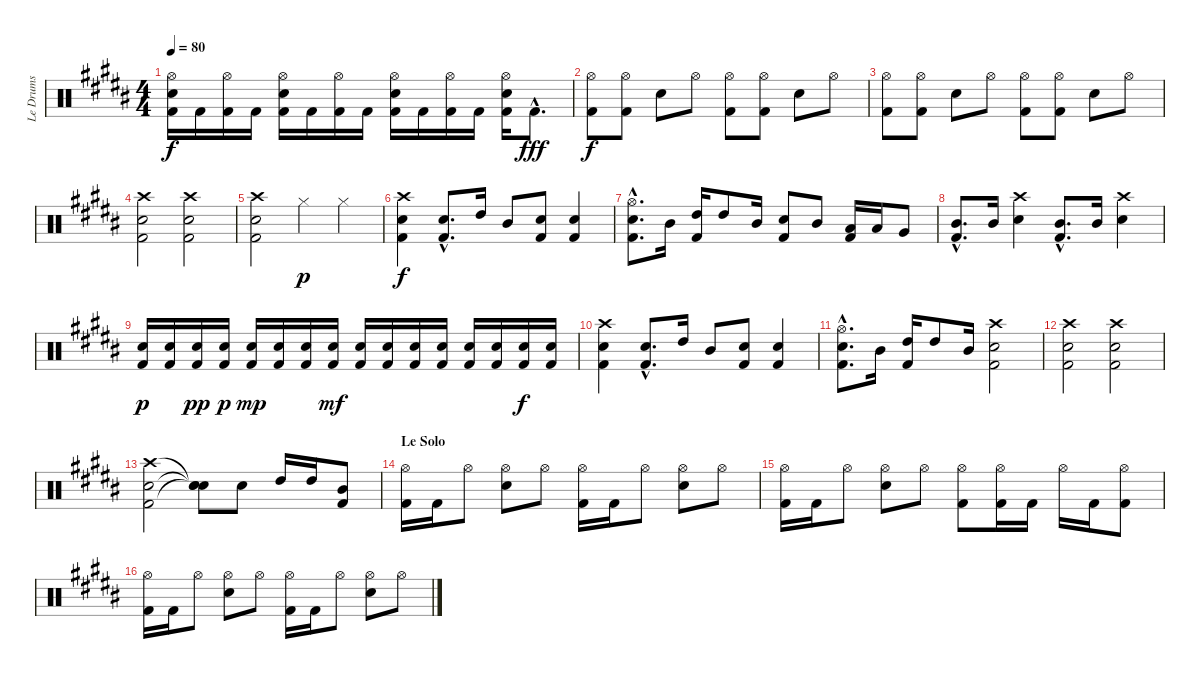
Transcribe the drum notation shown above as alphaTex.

\track ("Le Drums" "Le Drums") {instrument percussion}
\staff {score}
\articulation defaults
\ts (4 4)
\tempo 80
\clef neutral
\ks b
("Hi-Hat (open)" "Snare (hit) 2" "Kick (hit) 2").16{dy f} "Kick (hit) 2".16 ("Hi-Hat (open)" "Kick (hit) 2").16 "Kick (hit) 2".16 ("Hi-Hat (open)" "Snare (hit) 2" "Kick (hit) 2").16 "Kick (hit) 2".16 ("Hi-Hat (open)" "Kick (hit) 2").16 "Kick (hit) 2".16 ("Hi-Hat (open)" "Snare (hit) 2" "Kick (hit) 2").16 "Kick (hit) 2".16 ("Hi-Hat (open)" "Kick (hit) 2").16 "Kick (hit) 2".16 ("Hi-Hat (open)" "Snare (hit) 2" "Kick (hit) 2").16 "Kick (hit) 2"{hac}.8{d dy fff} |
("Hi-Hat (open)" "Kick (hit) 2").8{dy f} ("Hi-Hat (open)" "Kick (hit) 2").8 "Snare (hit) 2".8 "Hi-Hat (open)".8 ("Hi-Hat (open)" "Kick (hit) 2").8 ("Hi-Hat (open)" "Kick (hit) 2").8 "Snare (hit) 2".8 "Hi-Hat (open)".8 |
("Hi-Hat (open)" "Kick (hit) 2").8 ("Hi-Hat (open)" "Kick (hit) 2").8 "Snare (hit) 2".8 "Hi-Hat (open)".8 ("Hi-Hat (open)" "Kick (hit) 2").8 ("Hi-Hat (open)" "Kick (hit) 2").8 "Snare (hit) 2".8 "Hi-Hat (open)".8 |
("Crash high (hit)" "Snare (hit) 2" "Kick (hit) 2").2 ("Crash high (hit)" "Snare (hit) 2" "Kick (hit) 2").2 |
("Crash high (hit)" "Snare (hit) 2" "Kick (hit) 2").2 "Hi-Hat (closed)".4{dy p} "Hi-Hat (closed)".4 |
("Crash high (hit)" "Snare (hit) 2" "Kick (hit) 2").4{dy f} ("Snare (hit) 2"{hac} "Kick (hit) 2"{hac}).8{d} "High Tom (hit)".16 "Mid Tom (hit)".8 ("Snare (hit) 2" "Kick (hit) 2").8 ("Snare (hit) 2" "Kick (hit) 2").4 |
("Hi-Hat (open)"{hac} "Snare (hit) 2"{hac} "Kick (hit) 2"{hac}).8{d} "Mid Tom (hit)".16 ("High Tom (hit)" "Kick (hit) 2").16 "High Tom (hit)".8 "Mid Tom (hit)".16 ("Snare (hit) 2" "Kick (hit) 2").8 "Mid Tom (hit)".8 ("Low Tom (hit)" "Kick (hit) 2").16 "Low Tom (hit)".16 "Very Low Tom (hit)".8 |
("Mid Tom (hit)"{hac} "Kick (hit) 2"{hac}).8{d} "Mid Tom (hit)".16 ("Crash high (hit)" "Snare (hit) 2").4 ("Mid Tom (hit)"{hac} "Kick (hit) 2"{hac}).8{d} "Mid Tom (hit)".16 ("Crash high (hit)" "Snare (hit) 2").4 |
("Snare (hit) 2" "Kick (hit) 2").16{dy p} ("Snare (hit) 2" "Kick (hit) 2").16 ("Snare (hit) 2" "Kick (hit) 2").16{dy pp} ("Snare (hit) 2" "Kick (hit) 2").16{dy p} ("Snare (hit) 2" "Kick (hit) 2").16{dy mp} ("Snare (hit) 2" "Kick (hit) 2").16 ("Snare (hit) 2" "Kick (hit) 2").16 ("Snare (hit) 2" "Kick (hit) 2").16{dy mf} ("Snare (hit) 2" "Kick (hit) 2").16 ("Snare (hit) 2" "Kick (hit) 2").16 ("Snare (hit) 2" "Kick (hit) 2").16 ("Snare (hit) 2" "Kick (hit) 2").16 ("Snare (hit) 2" "Kick (hit) 2").16 ("Snare (hit) 2" "Kick (hit) 2").16 ("Snare (hit) 2" "Kick (hit) 2").16{dy f} ("Snare (hit) 2" "Kick (hit) 2").16 |
("Crash high (hit)" "Snare (hit) 2" "Kick (hit) 2").4 ("Snare (hit) 2"{hac} "Kick (hit) 2"{hac}).8{d} "High Tom (hit)".16 "Mid Tom (hit)".8 ("Snare (hit) 2" "Kick (hit) 2").8 ("Snare (hit) 2" "Kick (hit) 2").4 |
("Hi-Hat (open)"{hac} "Snare (hit) 2"{hac} "Kick (hit) 2"{hac}).8{d} "Mid Tom (hit)".16 ("High Tom (hit)" "Kick (hit) 2").16 "High Tom (hit)".8 "Mid Tom (hit)".16 ("Crash high (hit)" "Snare (hit) 2" "Kick (hit) 2").2 |
("Crash high (hit)" "Snare (hit) 2" "Kick (hit) 2").2 ("Crash high (hit)" "Snare (hit) 2" "Kick (hit) 2").2 |
("Crash high (hit)" "Snare (hit) 2" "Kick (hit) 2").2 ("Snare (hit)"{t} "Snare (hit)"{t} "Snare (hit)"{t}).8 "Snare (hit) 2".8 "High Tom (hit)".16 "High Tom (hit)".16 ("Mid Tom (hit)" "Kick (hit) 2").8 |
\section ("" "Le Solo")
("Hi-Hat (open)" "Kick (hit) 2").16 "Kick (hit) 2".16 "Hi-Hat (open)".8 ("Hi-Hat (open)" "Snare (hit) 2").8 "Hi-Hat (open)".8 ("Hi-Hat (open)" "Kick (hit) 2").16 "Kick (hit) 2".16 "Hi-Hat (open)".8 ("Hi-Hat (open)" "Snare (hit) 2").8 "Hi-Hat (open)".8 |
("Hi-Hat (open)" "Kick (hit) 2").16 "Kick (hit) 2".16 "Hi-Hat (open)".8 ("Hi-Hat (open)" "Snare (hit) 2").8 "Hi-Hat (open)".8 ("Hi-Hat (open)" "Kick (hit) 2").8 ("Hi-Hat (open)" "Kick (hit) 2").16 "Kick (hit) 2".16 "Hi-Hat (open)".16 "Kick (hit) 2".16 ("Hi-Hat (open)" "Kick (hit) 2").8 |
("Hi-Hat (open)" "Kick (hit) 2").16 "Kick (hit) 2".16 "Hi-Hat (open)".8 ("Hi-Hat (open)" "Snare (hit) 2").8 "Hi-Hat (open)".8 ("Hi-Hat (open)" "Kick (hit) 2").16 "Kick (hit) 2".16 "Hi-Hat (open)".8 ("Hi-Hat (open)" "Snare (hit) 2").8 "Hi-Hat (open)".8
